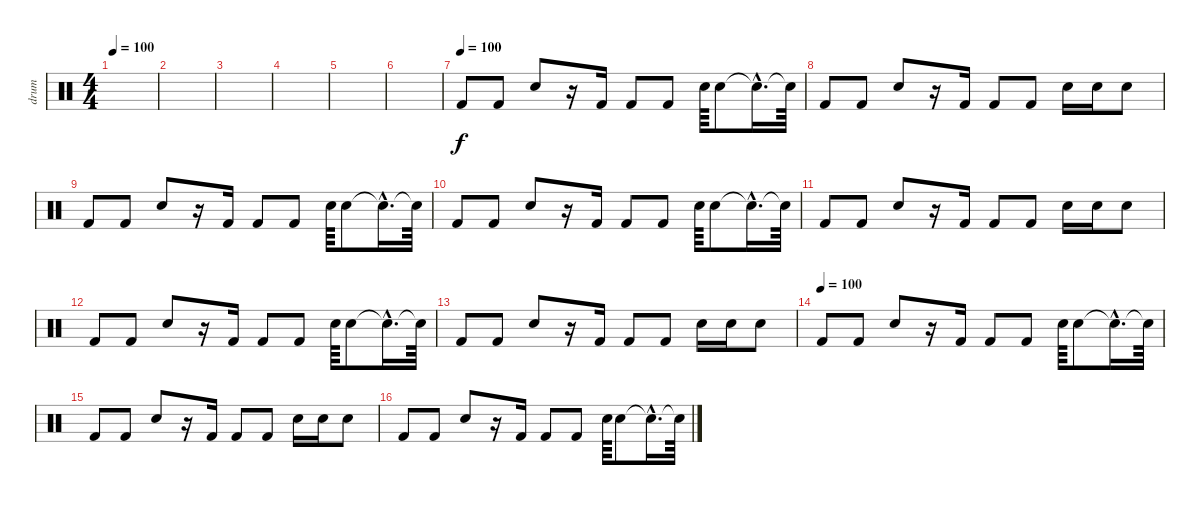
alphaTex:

\track ("drum" "drum") {instrument percussion}
\staff {score}
\articulation defaults
\ts (4 4)
\tempo 100
\clef neutral
\ks c
|
|
|
|
|
|
\tempo (100)
"Kick (hit) 2".8{volume 16} "Kick (hit) 2".8 "Snare (hit) 2".8 r.16 "Kick (hit) 2".16 "Kick (hit) 2".8 "Kick (hit) 2".8 "Snare (hit) 2".64 "Snare (hit) 2".8 "Snare (hit) 2"{hac t}.16{d} "Snare (hit) 2"{t}.64 |
"Kick (hit) 2".8{volume 16} "Kick (hit) 2".8 "Snare (hit) 2".8 r.16 "Kick (hit) 2".16 "Kick (hit) 2".8 "Kick (hit) 2".8 "Snare (hit) 2".16 "Snare (hit) 2".16 "Snare (hit) 2".8 |
"Kick (hit) 2".8{volume 16} "Kick (hit) 2".8 "Snare (hit) 2".8 r.16 "Kick (hit) 2".16 "Kick (hit) 2".8 "Kick (hit) 2".8 "Snare (hit) 2".64 "Snare (hit) 2".8 "Snare (hit) 2"{hac t}.16{d} "Snare (hit) 2"{t}.64 |
"Kick (hit) 2".8{volume 16} "Kick (hit) 2".8 "Snare (hit) 2".8 r.16 "Kick (hit) 2".16 "Kick (hit) 2".8 "Kick (hit) 2".8 "Snare (hit) 2".64 "Snare (hit) 2".8 "Snare (hit) 2"{hac t}.16{d} "Snare (hit) 2"{t}.64 |
"Kick (hit) 2".8{volume 16} "Kick (hit) 2".8 "Snare (hit) 2".8 r.16 "Kick (hit) 2".16 "Kick (hit) 2".8 "Kick (hit) 2".8 "Snare (hit) 2".16 "Snare (hit) 2".16 "Snare (hit) 2".8 |
"Kick (hit) 2".8{volume 16} "Kick (hit) 2".8 "Snare (hit) 2".8 r.16 "Kick (hit) 2".16 "Kick (hit) 2".8 "Kick (hit) 2".8 "Snare (hit) 2".64 "Snare (hit) 2".8 "Snare (hit) 2"{hac t}.16{d} "Snare (hit) 2"{t}.64 |
"Kick (hit) 2".8{volume 16} "Kick (hit) 2".8 "Snare (hit) 2".8 r.16 "Kick (hit) 2".16 "Kick (hit) 2".8 "Kick (hit) 2".8 "Snare (hit) 2".16 "Snare (hit) 2".16 "Snare (hit) 2".8 |
\tempo (100)
"Kick (hit) 2".8{volume 16} "Kick (hit) 2".8 "Snare (hit) 2".8 r.16 "Kick (hit) 2".16 "Kick (hit) 2".8 "Kick (hit) 2".8 "Snare (hit) 2".64 "Snare (hit) 2".8 "Snare (hit) 2"{hac t}.16{d} "Snare (hit) 2"{t}.64 |
"Kick (hit) 2".8{volume 16} "Kick (hit) 2".8 "Snare (hit) 2".8 r.16 "Kick (hit) 2".16 "Kick (hit) 2".8 "Kick (hit) 2".8 "Snare (hit) 2".16 "Snare (hit) 2".16 "Snare (hit) 2".8 |
"Kick (hit) 2".8{volume 16} "Kick (hit) 2".8 "Snare (hit) 2".8 r.16 "Kick (hit) 2".16 "Kick (hit) 2".8 "Kick (hit) 2".8 "Snare (hit) 2".64 "Snare (hit) 2".8 "Snare (hit) 2"{hac t}.16{d} "Snare (hit) 2"{t}.64
